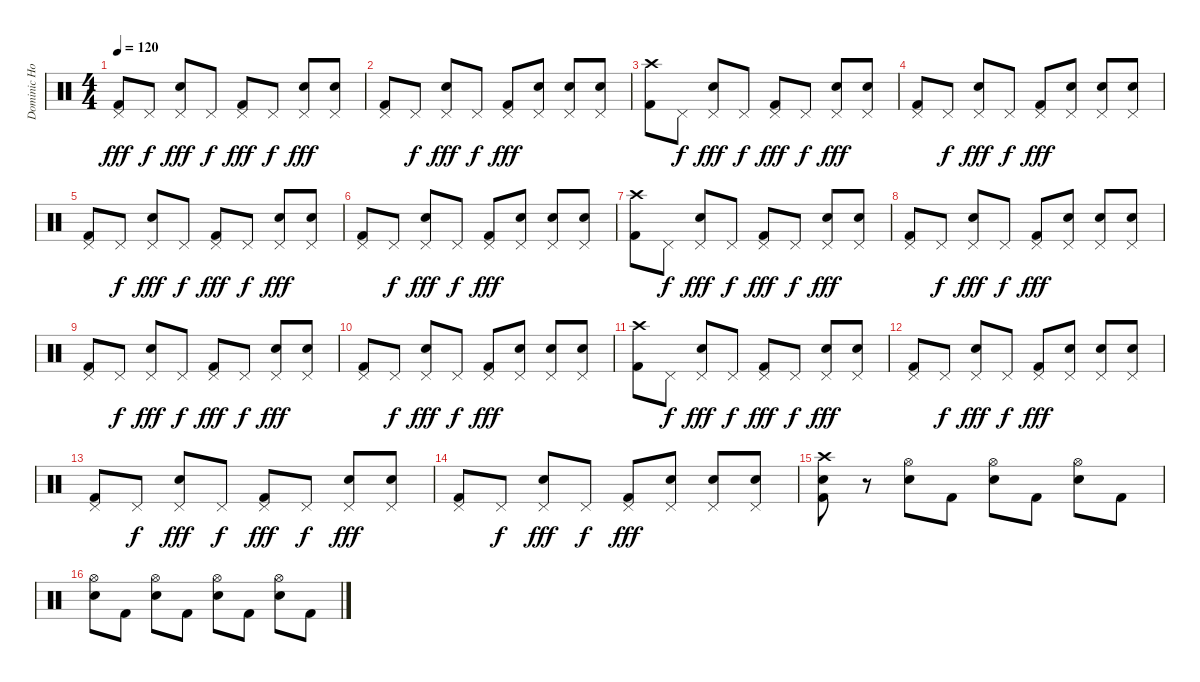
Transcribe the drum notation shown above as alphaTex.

\track ("Dominic Howard" "Dominic Ho") {instrument percussion}
\staff {score}
\articulation defaults
\ts (4 4)
\tempo 120
\clef neutral
\ks c
("Pedal Hi-Hat (hit)" "Kick (hit) 2").8{dy fff} "Pedal Hi-Hat (hit)".8{dy f} ("Pedal Hi-Hat (hit)" "Snare (hit) 2").8{dy fff} "Pedal Hi-Hat (hit)".8{dy f} ("Pedal Hi-Hat (hit)" "Kick (hit) 2").8{dy fff} "Pedal Hi-Hat (hit)".8{dy f} ("Pedal Hi-Hat (hit)" "Snare (hit) 2").8{dy fff} ("Pedal Hi-Hat (hit)" "Snare (hit) 2").8 |
("Pedal Hi-Hat (hit)" "Kick (hit) 2").8 "Pedal Hi-Hat (hit)".8{dy f} ("Pedal Hi-Hat (hit)" "Snare (hit) 2").8{dy fff} "Pedal Hi-Hat (hit)".8{dy f} ("Pedal Hi-Hat (hit)" "Kick (hit) 2").8{dy fff} ("Pedal Hi-Hat (hit)" "Snare (hit) 2").8 ("Pedal Hi-Hat (hit)" "Snare (hit) 2").8 ("Pedal Hi-Hat (hit)" "Snare (hit) 2").8 |
("Crash high (hit)" "Kick (hit) 2").8 "Pedal Hi-Hat (hit)".8{dy f} ("Pedal Hi-Hat (hit)" "Snare (hit) 2").8{dy fff} "Pedal Hi-Hat (hit)".8{dy f} ("Pedal Hi-Hat (hit)" "Kick (hit) 2").8{dy fff} "Pedal Hi-Hat (hit)".8{dy f} ("Pedal Hi-Hat (hit)" "Snare (hit) 2").8{dy fff} ("Pedal Hi-Hat (hit)" "Snare (hit) 2").8 |
("Pedal Hi-Hat (hit)" "Kick (hit) 2").8 "Pedal Hi-Hat (hit)".8{dy f} ("Pedal Hi-Hat (hit)" "Snare (hit) 2").8{dy fff} "Pedal Hi-Hat (hit)".8{dy f} ("Pedal Hi-Hat (hit)" "Kick (hit) 2").8{dy fff} ("Pedal Hi-Hat (hit)" "Snare (hit) 2").8 ("Pedal Hi-Hat (hit)" "Snare (hit) 2").8 ("Pedal Hi-Hat (hit)" "Snare (hit) 2").8 |
("Pedal Hi-Hat (hit)" "Kick (hit) 2").8 "Pedal Hi-Hat (hit)".8{dy f} ("Pedal Hi-Hat (hit)" "Snare (hit) 2").8{dy fff} "Pedal Hi-Hat (hit)".8{dy f} ("Pedal Hi-Hat (hit)" "Kick (hit) 2").8{dy fff} "Pedal Hi-Hat (hit)".8{dy f} ("Pedal Hi-Hat (hit)" "Snare (hit) 2").8{dy fff} ("Pedal Hi-Hat (hit)" "Snare (hit) 2").8 |
("Pedal Hi-Hat (hit)" "Kick (hit) 2").8 "Pedal Hi-Hat (hit)".8{dy f} ("Pedal Hi-Hat (hit)" "Snare (hit) 2").8{dy fff} "Pedal Hi-Hat (hit)".8{dy f} ("Pedal Hi-Hat (hit)" "Kick (hit) 2").8{dy fff} ("Pedal Hi-Hat (hit)" "Snare (hit) 2").8 ("Pedal Hi-Hat (hit)" "Snare (hit) 2").8 ("Pedal Hi-Hat (hit)" "Snare (hit) 2").8 |
("Crash high (hit)" "Kick (hit) 2").8 "Pedal Hi-Hat (hit)".8{dy f} ("Pedal Hi-Hat (hit)" "Snare (hit) 2").8{dy fff} "Pedal Hi-Hat (hit)".8{dy f} ("Pedal Hi-Hat (hit)" "Kick (hit) 2").8{dy fff} "Pedal Hi-Hat (hit)".8{dy f} ("Pedal Hi-Hat (hit)" "Snare (hit) 2").8{dy fff} ("Pedal Hi-Hat (hit)" "Snare (hit) 2").8 |
("Pedal Hi-Hat (hit)" "Kick (hit) 2").8 "Pedal Hi-Hat (hit)".8{dy f} ("Pedal Hi-Hat (hit)" "Snare (hit) 2").8{dy fff} "Pedal Hi-Hat (hit)".8{dy f} ("Pedal Hi-Hat (hit)" "Kick (hit) 2").8{dy fff} ("Pedal Hi-Hat (hit)" "Snare (hit) 2").8 ("Pedal Hi-Hat (hit)" "Snare (hit) 2").8 ("Pedal Hi-Hat (hit)" "Snare (hit) 2").8 |
("Pedal Hi-Hat (hit)" "Kick (hit) 2").8 "Pedal Hi-Hat (hit)".8{dy f} ("Pedal Hi-Hat (hit)" "Snare (hit) 2").8{dy fff} "Pedal Hi-Hat (hit)".8{dy f} ("Pedal Hi-Hat (hit)" "Kick (hit) 2").8{dy fff} "Pedal Hi-Hat (hit)".8{dy f} ("Pedal Hi-Hat (hit)" "Snare (hit) 2").8{dy fff} ("Pedal Hi-Hat (hit)" "Snare (hit) 2").8 |
("Pedal Hi-Hat (hit)" "Kick (hit) 2").8 "Pedal Hi-Hat (hit)".8{dy f} ("Pedal Hi-Hat (hit)" "Snare (hit) 2").8{dy fff} "Pedal Hi-Hat (hit)".8{dy f} ("Pedal Hi-Hat (hit)" "Kick (hit) 2").8{dy fff} ("Pedal Hi-Hat (hit)" "Snare (hit) 2").8 ("Pedal Hi-Hat (hit)" "Snare (hit) 2").8 ("Pedal Hi-Hat (hit)" "Snare (hit) 2").8 |
("Crash high (hit)" "Kick (hit) 2").8 "Pedal Hi-Hat (hit)".8{dy f} ("Pedal Hi-Hat (hit)" "Snare (hit) 2").8{dy fff} "Pedal Hi-Hat (hit)".8{dy f} ("Pedal Hi-Hat (hit)" "Kick (hit) 2").8{dy fff} "Pedal Hi-Hat (hit)".8{dy f} ("Pedal Hi-Hat (hit)" "Snare (hit) 2").8{dy fff} ("Pedal Hi-Hat (hit)" "Snare (hit) 2").8 |
("Pedal Hi-Hat (hit)" "Kick (hit) 2").8 "Pedal Hi-Hat (hit)".8{dy f} ("Pedal Hi-Hat (hit)" "Snare (hit) 2").8{dy fff} "Pedal Hi-Hat (hit)".8{dy f} ("Pedal Hi-Hat (hit)" "Kick (hit) 2").8{dy fff} ("Pedal Hi-Hat (hit)" "Snare (hit) 2").8 ("Pedal Hi-Hat (hit)" "Snare (hit) 2").8 ("Pedal Hi-Hat (hit)" "Snare (hit) 2").8 |
("Pedal Hi-Hat (hit)" "Kick (hit) 2").8 "Pedal Hi-Hat (hit)".8{dy f} ("Pedal Hi-Hat (hit)" "Snare (hit) 2").8{dy fff} "Pedal Hi-Hat (hit)".8{dy f} ("Pedal Hi-Hat (hit)" "Kick (hit) 2").8{dy fff} "Pedal Hi-Hat (hit)".8{dy f} ("Pedal Hi-Hat (hit)" "Snare (hit) 2").8{dy fff} ("Pedal Hi-Hat (hit)" "Snare (hit) 2").8 |
("Pedal Hi-Hat (hit)" "Kick (hit) 2").8 "Pedal Hi-Hat (hit)".8{dy f} ("Pedal Hi-Hat (hit)" "Snare (hit) 2").8{dy fff} "Pedal Hi-Hat (hit)".8{dy f} ("Pedal Hi-Hat (hit)" "Kick (hit) 2").8{dy fff} ("Pedal Hi-Hat (hit)" "Snare (hit) 2").8 ("Pedal Hi-Hat (hit)" "Snare (hit) 2").8 ("Pedal Hi-Hat (hit)" "Snare (hit) 2").8 |
("Crash high (hit)" "Snare (hit) 2" "Kick (hit) 2").8 r.8 ("Hi-Hat (open)" "Snare (hit) 2").8 "Kick (hit) 2".8 ("Hi-Hat (open)" "Snare (hit) 2").8 "Kick (hit) 2".8 ("Hi-Hat (open)" "Snare (hit) 2").8 "Kick (hit) 2".8 |
("Hi-Hat (open)" "Snare (hit) 2").8 "Kick (hit) 2".8 ("Hi-Hat (open)" "Snare (hit) 2").8 "Kick (hit) 2".8 ("Hi-Hat (open)" "Snare (hit) 2").8 "Kick (hit) 2".8 ("Hi-Hat (open)" "Snare (hit) 2").8 "Kick (hit) 2".8
